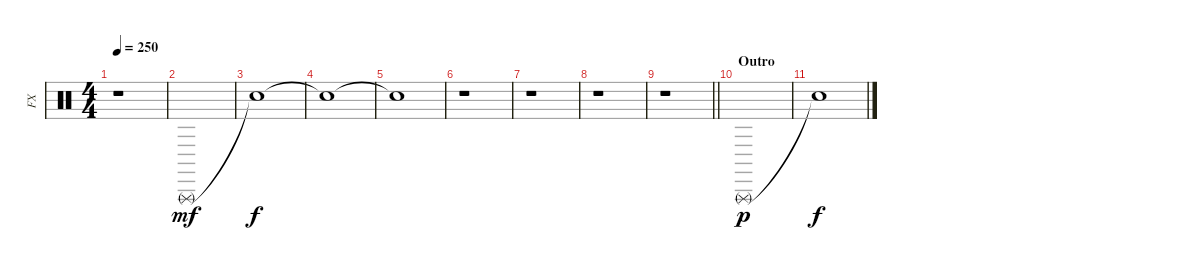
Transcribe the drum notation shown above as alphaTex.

\track ("FX" "FX") {instrument percussion}
\staff {score}
\articulation defaults
\ts (4 4)
\tempo 250
\clef neutral
\ks c
r.1{dy f} |
"Triangle (rnute)".1{dy mf} |
"Snare (hit)"{t}.1{dy f} |
"Snare (hit)"{t}.1 |
"Snare (hit)"{t}.1 |
r.1 |
r.1 |
r.1 |
\barLineRight lightlight
r.1 |
\section ("" "Outro")
"Triangle (rnute)".1{dy p} |
"Snare (hit)"{t}.1{dy f}
